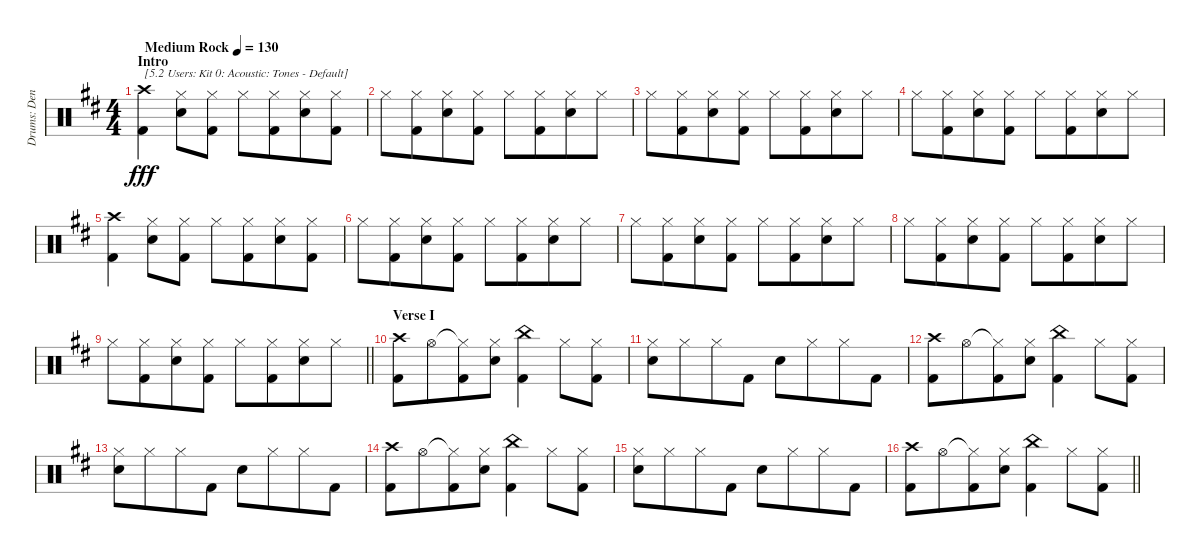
\track ("Drums: Denny" "Drums: Den") {instrument percussion}
\staff {score}
\articulation defaults
\ts (4 4)
\section ("" "Intro")
\tempo (130 "Medium Rock")
\clef neutral
\ks d
("Crash high (hit)" "Kick (hit) 2").4{txt "[5.2 Users: Kit 0: Acoustic: Tones - Default]" dy fff} ("Hi-Hat (closed)" "Electric Snare (hit)").8 ("Hi-Hat (closed)" "Kick (hit) 2").8 "Hi-Hat (closed)".8 ("Hi-Hat (closed)" "Kick (hit) 2").8{beam merge} ("Hi-Hat (closed)" "Electric Snare (hit)").8 ("Hi-Hat (closed)" "Kick (hit) 2").8 |
"Hi-Hat (closed)".8 ("Hi-Hat (closed)" "Kick (hit) 2").8{beam merge} ("Hi-Hat (closed)" "Electric Snare (hit)").8 ("Hi-Hat (closed)" "Kick (hit) 2").8 "Hi-Hat (closed)".8 ("Hi-Hat (closed)" "Kick (hit) 2").8{beam merge} ("Hi-Hat (closed)" "Electric Snare (hit)").8 "Hi-Hat (closed)".8 |
"Hi-Hat (closed)".8 ("Hi-Hat (closed)" "Kick (hit) 2").8{beam merge} ("Hi-Hat (closed)" "Electric Snare (hit)").8 ("Hi-Hat (closed)" "Kick (hit) 2").8 "Hi-Hat (closed)".8 ("Hi-Hat (closed)" "Kick (hit) 2").8{beam merge} ("Hi-Hat (closed)" "Electric Snare (hit)").8 "Hi-Hat (closed)".8 |
"Hi-Hat (closed)".8 ("Hi-Hat (closed)" "Kick (hit) 2").8{beam merge} ("Hi-Hat (closed)" "Electric Snare (hit)").8 ("Hi-Hat (closed)" "Kick (hit) 2").8 "Hi-Hat (closed)".8 ("Hi-Hat (closed)" "Kick (hit) 2").8{beam merge} ("Hi-Hat (closed)" "Electric Snare (hit)").8 "Hi-Hat (closed)".8 |
("Crash high (hit)" "Kick (hit) 2").4 ("Hi-Hat (closed)" "Electric Snare (hit)").8 ("Hi-Hat (closed)" "Kick (hit) 2").8 "Hi-Hat (closed)".8 ("Hi-Hat (closed)" "Kick (hit) 2").8{beam merge} ("Hi-Hat (closed)" "Electric Snare (hit)").8 ("Hi-Hat (closed)" "Kick (hit) 2").8 |
"Hi-Hat (closed)".8 ("Hi-Hat (closed)" "Kick (hit) 2").8{beam merge} ("Hi-Hat (closed)" "Electric Snare (hit)").8 ("Hi-Hat (closed)" "Kick (hit) 2").8 "Hi-Hat (closed)".8 ("Hi-Hat (closed)" "Kick (hit) 2").8{beam merge} ("Hi-Hat (closed)" "Electric Snare (hit)").8 "Hi-Hat (closed)".8 |
"Hi-Hat (closed)".8 ("Hi-Hat (closed)" "Kick (hit) 2").8{beam merge} ("Hi-Hat (closed)" "Electric Snare (hit)").8 ("Hi-Hat (closed)" "Kick (hit) 2").8 "Hi-Hat (closed)".8 ("Hi-Hat (closed)" "Kick (hit) 2").8{beam merge} ("Hi-Hat (closed)" "Electric Snare (hit)").8 "Hi-Hat (closed)".8 |
"Hi-Hat (closed)".8 ("Hi-Hat (closed)" "Kick (hit) 2").8{beam merge} ("Hi-Hat (closed)" "Electric Snare (hit)").8 ("Hi-Hat (closed)" "Kick (hit) 2").8 "Hi-Hat (closed)".8 ("Hi-Hat (closed)" "Kick (hit) 2").8{beam merge} ("Hi-Hat (closed)" "Electric Snare (hit)").8 "Hi-Hat (closed)".8 |
\barLineRight lightlight "Hi-Hat (closed)".8
("Hi-Hat (closed)" "Kick (hit) 2").8{beam merge} ("Hi-Hat (closed)" "Electric Snare (hit)").8 ("Hi-Hat (closed)" "Kick (hit) 2").8 "Hi-Hat (closed)".8 ("Hi-Hat (closed)" "Kick (hit) 2").8{beam merge} ("Hi-Hat (closed)" "Electric Snare (hit)").8 "Hi-Hat (closed)".8 |
\section ("" "Verse I")
("Crash high (hit)" "Kick (hit) 2").8 "Hi-Hat (open)".8{beam merge} ("Hi-Hat (closed)"{t} "Kick (hit) 2").8{beam merge} ("Hi-Hat (closed)" "Electric Snare (hit)").8 ("China (hit)" "Kick (hit) 2").4 "Hi-Hat (closed)".8{beam merge} ("Hi-Hat (closed)" "Kick (hit) 2").8 |
("Hi-Hat (closed)" "Electric Snare (hit)").8 "Hi-Hat (closed)".8{beam merge} "Hi-Hat (closed)".8 "Kick (hit) 2".8 "Electric Snare (hit)".8 "Hi-Hat (closed)".8{beam merge} "Hi-Hat (closed)".8 "Kick (hit) 2".8 |
("Crash high (hit)" "Kick (hit) 2").8 "Hi-Hat (open)".8{beam merge} ("Hi-Hat (closed)"{t} "Kick (hit) 2").8{beam merge} ("Hi-Hat (closed)" "Electric Snare (hit)").8 ("China (hit)" "Kick (hit) 2").4 "Hi-Hat (closed)".8{beam merge} ("Hi-Hat (closed)" "Kick (hit) 2").8 |
("Hi-Hat (closed)" "Electric Snare (hit)").8 "Hi-Hat (closed)".8{beam merge} "Hi-Hat (closed)".8 "Kick (hit) 2".8 "Electric Snare (hit)".8 "Hi-Hat (closed)".8{beam merge} "Hi-Hat (closed)".8 "Kick (hit) 2".8 |
("Crash high (hit)" "Kick (hit) 2").8 "Hi-Hat (open)".8{beam merge} ("Hi-Hat (closed)"{t} "Kick (hit) 2").8{beam merge} ("Hi-Hat (closed)" "Electric Snare (hit)").8 ("China (hit)" "Kick (hit) 2").4 "Hi-Hat (closed)".8{beam merge} ("Hi-Hat (closed)" "Kick (hit) 2").8 |
("Hi-Hat (closed)" "Electric Snare (hit)").8 "Hi-Hat (closed)".8{beam merge} "Hi-Hat (closed)".8 "Kick (hit) 2".8 "Electric Snare (hit)".8 "Hi-Hat (closed)".8{beam merge} "Hi-Hat (closed)".8 "Kick (hit) 2".8 |
\barLineRight lightlight
("Crash high (hit)" "Kick (hit) 2").8 "Hi-Hat (open)".8{beam merge} ("Hi-Hat (closed)"{t} "Kick (hit) 2").8{beam merge} ("Hi-Hat (closed)" "Electric Snare (hit)").8 ("China (hit)" "Kick (hit) 2").4 "Hi-Hat (closed)".8{beam merge} ("Hi-Hat (closed)" "Kick (hit) 2").8
